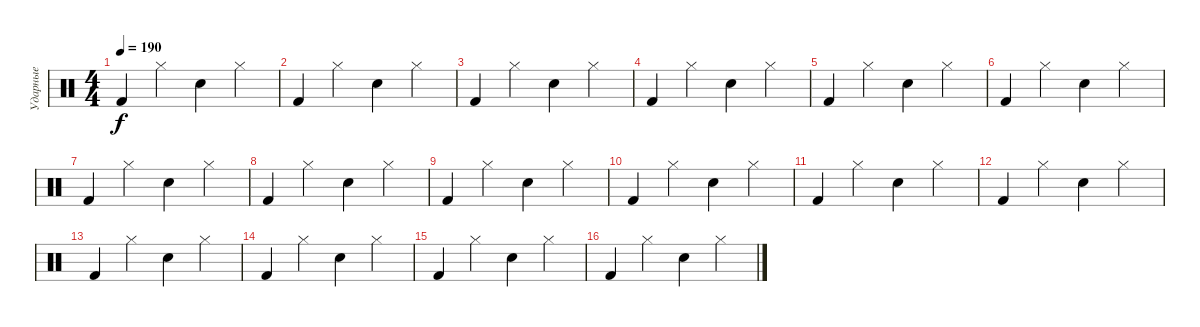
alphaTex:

\track ("Ударные" "Ударные") {instrument percussion}
\staff {score}
\articulation defaults
\ts (4 4)
\tempo 190
\clef neutral
\ks c "Kick (hit) 2".4{dy f} "Hi-Hat (closed)".4 "Snare (hit) 2".4 "Hi-Hat (closed)".4
|
"Kick (hit) 2".4 "Hi-Hat (closed)".4 "Snare (hit) 2".4 "Hi-Hat (closed)".4 |
"Kick (hit) 2".4 "Hi-Hat (closed)".4 "Snare (hit) 2".4 "Hi-Hat (closed)".4 |
"Kick (hit) 2".4 "Hi-Hat (closed)".4 "Snare (hit) 2".4 "Hi-Hat (closed)".4 |
"Kick (hit) 2".4 "Hi-Hat (closed)".4 "Snare (hit) 2".4 "Hi-Hat (closed)".4 |
"Kick (hit) 2".4 "Hi-Hat (closed)".4 "Snare (hit) 2".4 "Hi-Hat (closed)".4 |
"Kick (hit) 2".4 "Hi-Hat (closed)".4 "Snare (hit) 2".4 "Hi-Hat (closed)".4 |
"Kick (hit) 2".4 "Hi-Hat (closed)".4 "Snare (hit) 2".4 "Hi-Hat (closed)".4 |
"Kick (hit) 2".4 "Hi-Hat (closed)".4 "Snare (hit) 2".4 "Hi-Hat (closed)".4 |
"Kick (hit) 2".4 "Hi-Hat (closed)".4 "Snare (hit) 2".4 "Hi-Hat (closed)".4 |
"Kick (hit) 2".4 "Hi-Hat (closed)".4 "Snare (hit) 2".4 "Hi-Hat (closed)".4 |
"Kick (hit) 2".4 "Hi-Hat (closed)".4 "Snare (hit) 2".4 "Hi-Hat (closed)".4 |
"Kick (hit) 2".4 "Hi-Hat (closed)".4 "Snare (hit) 2".4 "Hi-Hat (closed)".4 |
"Kick (hit) 2".4 "Hi-Hat (closed)".4 "Snare (hit) 2".4 "Hi-Hat (closed)".4 |
"Kick (hit) 2".4 "Hi-Hat (closed)".4 "Snare (hit) 2".4 "Hi-Hat (closed)".4 |
"Kick (hit) 2".4 "Hi-Hat (closed)".4 "Snare (hit) 2".4 "Hi-Hat (closed)".4
